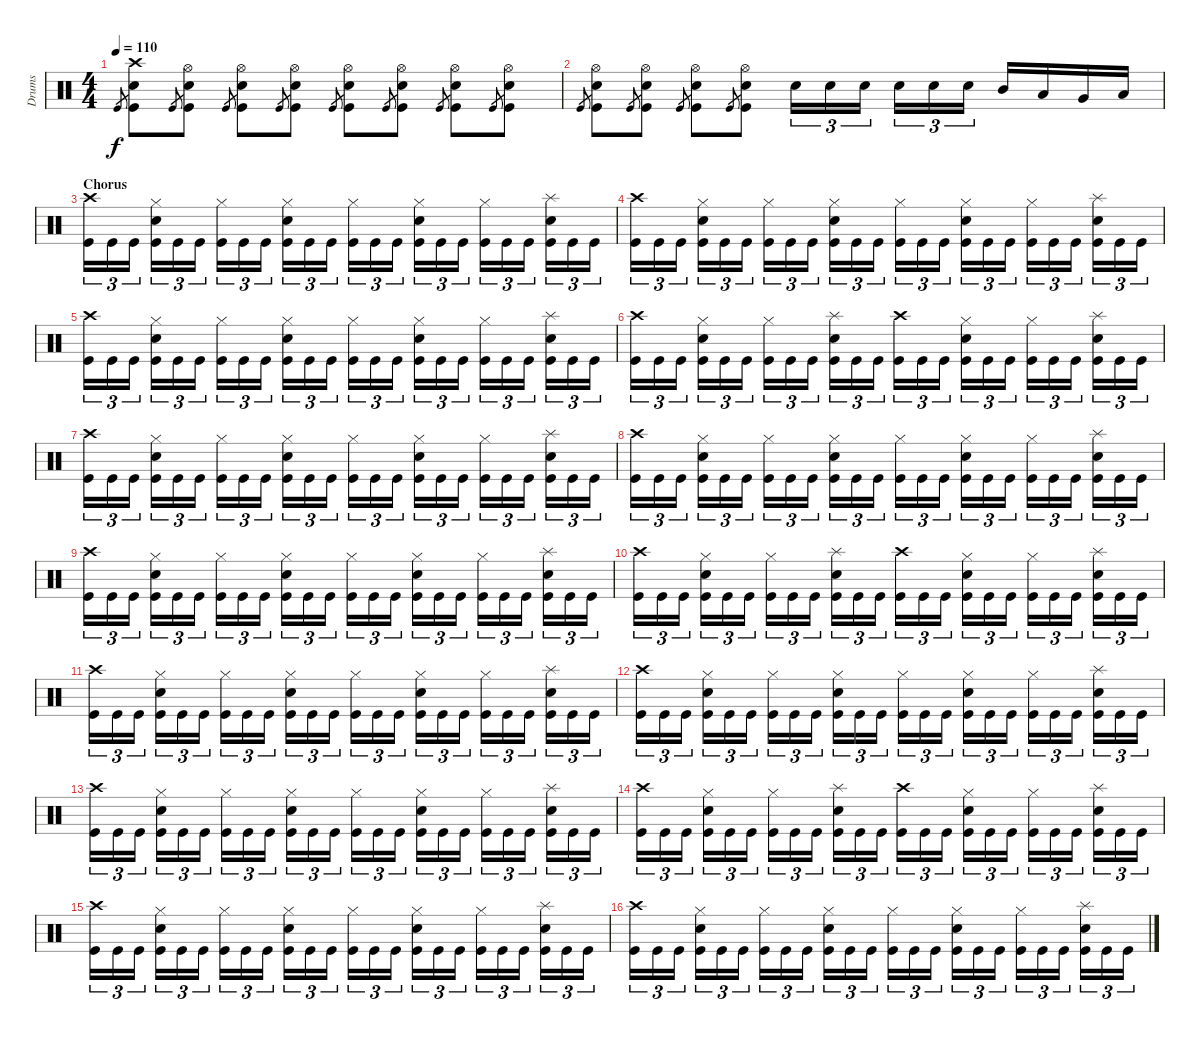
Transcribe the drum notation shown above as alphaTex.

\track ("Drums" "Drums") {instrument percussion}
\staff {score}
\articulation defaults
\ts (4 4)
\tempo 110
\clef neutral
\ks c "Kick (hit)".8{gr dy f}
("Crash high (hit)" "Snare (hit) 2" "Kick (hit)").8 "Kick (hit)".8{gr} ("Hi-Hat (open)" "Snare (hit) 2" "Kick (hit)").8 "Kick (hit)".8{gr} ("Hi-Hat (open)" "Snare (hit) 2" "Kick (hit)").8 "Kick (hit)".8{gr} ("Hi-Hat (open)" "Snare (hit) 2" "Kick (hit)").8 "Kick (hit)".8{gr} ("Hi-Hat (open)" "Snare (hit) 2" "Kick (hit)").8 "Kick (hit)".8{gr} ("Hi-Hat (open)" "Snare (hit) 2" "Kick (hit)").8 "Kick (hit)".8{gr} ("Hi-Hat (open)" "Snare (hit) 2" "Kick (hit)").8 "Kick (hit)".8{gr} ("Hi-Hat (open)" "Snare (hit) 2" "Kick (hit)").8 |
"Kick (hit)".8{gr} ("Hi-Hat (open)" "Snare (hit) 2" "Kick (hit)").8 "Kick (hit)".8{gr} ("Hi-Hat (open)" "Snare (hit) 2" "Kick (hit)").8 "Kick (hit)".8{gr} ("Hi-Hat (open)" "Snare (hit) 2" "Kick (hit)").8 "Kick (hit)".8{gr} ("Hi-Hat (open)" "Snare (hit) 2" "Kick (hit)").8 "Snare (hit) 2".16{tu (3 2)} "Snare (hit) 2".16{tu (3 2)} "Snare (hit) 2".16{tu (3 2)} "Snare (hit) 2".16{tu (3 2)} "Snare (hit) 2".16{tu (3 2)} "Snare (hit) 2".16{tu (3 2)} "Mid Tom (hit)".16 "Low Tom (hit)".16 "Very Low Tom (hit)".16 "Low Floor Tom (hit)".16 |
\section ("" "Chorus ")
("Crash high (hit)" "Kick (hit)").16{tu (3 2)} "Kick (hit)".16{tu (3 2)} "Kick (hit)".16{tu (3 2)} ("Hi-Hat (closed)" "Snare (hit) 2" "Kick (hit)").16{tu (3 2)} "Kick (hit)".16{tu (3 2)} "Kick (hit)".16{tu (3 2)} ("Hi-Hat (closed)" "Kick (hit)").16{tu (3 2)} "Kick (hit)".16{tu (3 2)} "Kick (hit)".16{tu (3 2)} ("Hi-Hat (closed)" "Snare (hit) 2" "Kick (hit)").16{tu (3 2)} "Kick (hit)".16{tu (3 2)} "Kick (hit)".16{tu (3 2)} ("Hi-Hat (closed)" "Kick (hit)").16{tu (3 2)} "Kick (hit)".16{tu (3 2)} "Kick (hit)".16{tu (3 2)} ("Hi-Hat (closed)" "Snare (hit) 2" "Kick (hit)").16{tu (3 2)} "Kick (hit)".16{tu (3 2)} "Kick (hit)".16{tu (3 2)} ("Hi-Hat (closed)" "Kick (hit)").16{tu (3 2)} "Kick (hit)".16{tu (3 2)} "Kick (hit)".16{tu (3 2)} ("Splash (hit)" "Snare (hit) 2" "Kick (hit)").16{tu (3 2)} "Kick (hit)".16{tu (3 2)} "Kick (hit)".16{tu (3 2)} |
("Crash high (hit)" "Kick (hit)").16{tu (3 2)} "Kick (hit)".16{tu (3 2)} "Kick (hit)".16{tu (3 2)} ("Hi-Hat (closed)" "Snare (hit) 2" "Kick (hit)").16{tu (3 2)} "Kick (hit)".16{tu (3 2)} "Kick (hit)".16{tu (3 2)} ("Hi-Hat (closed)" "Kick (hit)").16{tu (3 2)} "Kick (hit)".16{tu (3 2)} "Kick (hit)".16{tu (3 2)} ("Hi-Hat (closed)" "Snare (hit) 2" "Kick (hit)").16{tu (3 2)} "Kick (hit)".16{tu (3 2)} "Kick (hit)".16{tu (3 2)} ("Hi-Hat (closed)" "Kick (hit)").16{tu (3 2)} "Kick (hit)".16{tu (3 2)} "Kick (hit)".16{tu (3 2)} ("Hi-Hat (closed)" "Snare (hit) 2" "Kick (hit)").16{tu (3 2)} "Kick (hit)".16{tu (3 2)} "Kick (hit)".16{tu (3 2)} ("Hi-Hat (closed)" "Kick (hit)").16{tu (3 2)} "Kick (hit)".16{tu (3 2)} "Kick (hit)".16{tu (3 2)} ("Splash (hit)" "Snare (hit) 2" "Kick (hit)").16{tu (3 2)} "Kick (hit)".16{tu (3 2)} "Kick (hit)".16{tu (3 2)} |
("Crash high (hit)" "Kick (hit)").16{tu (3 2)} "Kick (hit)".16{tu (3 2)} "Kick (hit)".16{tu (3 2)} ("Hi-Hat (closed)" "Snare (hit) 2" "Kick (hit)").16{tu (3 2)} "Kick (hit)".16{tu (3 2)} "Kick (hit)".16{tu (3 2)} ("Hi-Hat (closed)" "Kick (hit)").16{tu (3 2)} "Kick (hit)".16{tu (3 2)} "Kick (hit)".16{tu (3 2)} ("Hi-Hat (closed)" "Snare (hit) 2" "Kick (hit)").16{tu (3 2)} "Kick (hit)".16{tu (3 2)} "Kick (hit)".16{tu (3 2)} ("Hi-Hat (closed)" "Kick (hit)").16{tu (3 2)} "Kick (hit)".16{tu (3 2)} "Kick (hit)".16{tu (3 2)} ("Hi-Hat (closed)" "Snare (hit) 2" "Kick (hit)").16{tu (3 2)} "Kick (hit)".16{tu (3 2)} "Kick (hit)".16{tu (3 2)} ("Hi-Hat (closed)" "Kick (hit)").16{tu (3 2)} "Kick (hit)".16{tu (3 2)} "Kick (hit)".16{tu (3 2)} ("Splash (hit)" "Snare (hit) 2" "Kick (hit)").16{tu (3 2)} "Kick (hit)".16{tu (3 2)} "Kick (hit)".16{tu (3 2)} |
("Crash high (hit)" "Kick (hit)").16{tu (3 2)} "Kick (hit)".16{tu (3 2)} "Kick (hit)".16{tu (3 2)} ("Hi-Hat (closed)" "Snare (hit) 2" "Kick (hit)").16{tu (3 2)} "Kick (hit)".16{tu (3 2)} "Kick (hit)".16{tu (3 2)} ("Hi-Hat (closed)" "Kick (hit)").16{tu (3 2)} "Kick (hit)".16{tu (3 2)} "Kick (hit)".16{tu (3 2)} ("Splash (hit)" "Snare (hit) 2" "Kick (hit)").16{tu (3 2)} "Kick (hit)".16{tu (3 2)} "Kick (hit)".16{tu (3 2)} ("Crash high (hit)" "Kick (hit)").16{tu (3 2)} "Kick (hit)".16{tu (3 2)} "Kick (hit)".16{tu (3 2)} ("Hi-Hat (closed)" "Snare (hit) 2" "Kick (hit)").16{tu (3 2)} "Kick (hit)".16{tu (3 2)} "Kick (hit)".16{tu (3 2)} ("Hi-Hat (closed)" "Kick (hit)").16{tu (3 2)} "Kick (hit)".16{tu (3 2)} "Kick (hit)".16{tu (3 2)} ("Splash (hit)" "Snare (hit) 2" "Kick (hit)").16{tu (3 2)} "Kick (hit)".16{tu (3 2)} "Kick (hit)".16{tu (3 2)} |
("Crash high (hit)" "Kick (hit)").16{tu (3 2)} "Kick (hit)".16{tu (3 2)} "Kick (hit)".16{tu (3 2)} ("Hi-Hat (closed)" "Snare (hit) 2" "Kick (hit)").16{tu (3 2)} "Kick (hit)".16{tu (3 2)} "Kick (hit)".16{tu (3 2)} ("Hi-Hat (closed)" "Kick (hit)").16{tu (3 2)} "Kick (hit)".16{tu (3 2)} "Kick (hit)".16{tu (3 2)} ("Hi-Hat (closed)" "Snare (hit) 2" "Kick (hit)").16{tu (3 2)} "Kick (hit)".16{tu (3 2)} "Kick (hit)".16{tu (3 2)} ("Hi-Hat (closed)" "Kick (hit)").16{tu (3 2)} "Kick (hit)".16{tu (3 2)} "Kick (hit)".16{tu (3 2)} ("Hi-Hat (closed)" "Snare (hit) 2" "Kick (hit)").16{tu (3 2)} "Kick (hit)".16{tu (3 2)} "Kick (hit)".16{tu (3 2)} ("Hi-Hat (closed)" "Kick (hit)").16{tu (3 2)} "Kick (hit)".16{tu (3 2)} "Kick (hit)".16{tu (3 2)} ("Splash (hit)" "Snare (hit) 2" "Kick (hit)").16{tu (3 2)} "Kick (hit)".16{tu (3 2)} "Kick (hit)".16{tu (3 2)} |
("Crash high (hit)" "Kick (hit)").16{tu (3 2)} "Kick (hit)".16{tu (3 2)} "Kick (hit)".16{tu (3 2)} ("Hi-Hat (closed)" "Snare (hit) 2" "Kick (hit)").16{tu (3 2)} "Kick (hit)".16{tu (3 2)} "Kick (hit)".16{tu (3 2)} ("Hi-Hat (closed)" "Kick (hit)").16{tu (3 2)} "Kick (hit)".16{tu (3 2)} "Kick (hit)".16{tu (3 2)} ("Hi-Hat (closed)" "Snare (hit) 2" "Kick (hit)").16{tu (3 2)} "Kick (hit)".16{tu (3 2)} "Kick (hit)".16{tu (3 2)} ("Hi-Hat (closed)" "Kick (hit)").16{tu (3 2)} "Kick (hit)".16{tu (3 2)} "Kick (hit)".16{tu (3 2)} ("Hi-Hat (closed)" "Snare (hit) 2" "Kick (hit)").16{tu (3 2)} "Kick (hit)".16{tu (3 2)} "Kick (hit)".16{tu (3 2)} ("Hi-Hat (closed)" "Kick (hit)").16{tu (3 2)} "Kick (hit)".16{tu (3 2)} "Kick (hit)".16{tu (3 2)} ("Splash (hit)" "Snare (hit) 2" "Kick (hit)").16{tu (3 2)} "Kick (hit)".16{tu (3 2)} "Kick (hit)".16{tu (3 2)} |
("Crash high (hit)" "Kick (hit)").16{tu (3 2)} "Kick (hit)".16{tu (3 2)} "Kick (hit)".16{tu (3 2)} ("Hi-Hat (closed)" "Snare (hit) 2" "Kick (hit)").16{tu (3 2)} "Kick (hit)".16{tu (3 2)} "Kick (hit)".16{tu (3 2)} ("Hi-Hat (closed)" "Kick (hit)").16{tu (3 2)} "Kick (hit)".16{tu (3 2)} "Kick (hit)".16{tu (3 2)} ("Hi-Hat (closed)" "Snare (hit) 2" "Kick (hit)").16{tu (3 2)} "Kick (hit)".16{tu (3 2)} "Kick (hit)".16{tu (3 2)} ("Hi-Hat (closed)" "Kick (hit)").16{tu (3 2)} "Kick (hit)".16{tu (3 2)} "Kick (hit)".16{tu (3 2)} ("Hi-Hat (closed)" "Snare (hit) 2" "Kick (hit)").16{tu (3 2)} "Kick (hit)".16{tu (3 2)} "Kick (hit)".16{tu (3 2)} ("Hi-Hat (closed)" "Kick (hit)").16{tu (3 2)} "Kick (hit)".16{tu (3 2)} "Kick (hit)".16{tu (3 2)} ("Splash (hit)" "Snare (hit) 2" "Kick (hit)").16{tu (3 2)} "Kick (hit)".16{tu (3 2)} "Kick (hit)".16{tu (3 2)} |
("Crash high (hit)" "Kick (hit)").16{tu (3 2)} "Kick (hit)".16{tu (3 2)} "Kick (hit)".16{tu (3 2)} ("Hi-Hat (closed)" "Snare (hit) 2" "Kick (hit)").16{tu (3 2)} "Kick (hit)".16{tu (3 2)} "Kick (hit)".16{tu (3 2)} ("Hi-Hat (closed)" "Kick (hit)").16{tu (3 2)} "Kick (hit)".16{tu (3 2)} "Kick (hit)".16{tu (3 2)} ("Splash (hit)" "Snare (hit) 2" "Kick (hit)").16{tu (3 2)} "Kick (hit)".16{tu (3 2)} "Kick (hit)".16{tu (3 2)} ("Crash high (hit)" "Kick (hit)").16{tu (3 2)} "Kick (hit)".16{tu (3 2)} "Kick (hit)".16{tu (3 2)} ("Hi-Hat (closed)" "Snare (hit) 2" "Kick (hit)").16{tu (3 2)} "Kick (hit)".16{tu (3 2)} "Kick (hit)".16{tu (3 2)} ("Hi-Hat (closed)" "Kick (hit)").16{tu (3 2)} "Kick (hit)".16{tu (3 2)} "Kick (hit)".16{tu (3 2)} ("Splash (hit)" "Snare (hit) 2" "Kick (hit)").16{tu (3 2)} "Kick (hit)".16{tu (3 2)} "Kick (hit)".16{tu (3 2)} |
("Crash high (hit)" "Kick (hit)").16{tu (3 2)} "Kick (hit)".16{tu (3 2)} "Kick (hit)".16{tu (3 2)} ("Hi-Hat (closed)" "Snare (hit) 2" "Kick (hit)").16{tu (3 2)} "Kick (hit)".16{tu (3 2)} "Kick (hit)".16{tu (3 2)} ("Hi-Hat (closed)" "Kick (hit)").16{tu (3 2)} "Kick (hit)".16{tu (3 2)} "Kick (hit)".16{tu (3 2)} ("Hi-Hat (closed)" "Snare (hit) 2" "Kick (hit)").16{tu (3 2)} "Kick (hit)".16{tu (3 2)} "Kick (hit)".16{tu (3 2)} ("Hi-Hat (closed)" "Kick (hit)").16{tu (3 2)} "Kick (hit)".16{tu (3 2)} "Kick (hit)".16{tu (3 2)} ("Hi-Hat (closed)" "Snare (hit) 2" "Kick (hit)").16{tu (3 2)} "Kick (hit)".16{tu (3 2)} "Kick (hit)".16{tu (3 2)} ("Hi-Hat (closed)" "Kick (hit)").16{tu (3 2)} "Kick (hit)".16{tu (3 2)} "Kick (hit)".16{tu (3 2)} ("Splash (hit)" "Snare (hit) 2" "Kick (hit)").16{tu (3 2)} "Kick (hit)".16{tu (3 2)} "Kick (hit)".16{tu (3 2)} |
("Crash high (hit)" "Kick (hit)").16{tu (3 2)} "Kick (hit)".16{tu (3 2)} "Kick (hit)".16{tu (3 2)} ("Hi-Hat (closed)" "Snare (hit) 2" "Kick (hit)").16{tu (3 2)} "Kick (hit)".16{tu (3 2)} "Kick (hit)".16{tu (3 2)} ("Hi-Hat (closed)" "Kick (hit)").16{tu (3 2)} "Kick (hit)".16{tu (3 2)} "Kick (hit)".16{tu (3 2)} ("Hi-Hat (closed)" "Snare (hit) 2" "Kick (hit)").16{tu (3 2)} "Kick (hit)".16{tu (3 2)} "Kick (hit)".16{tu (3 2)} ("Hi-Hat (closed)" "Kick (hit)").16{tu (3 2)} "Kick (hit)".16{tu (3 2)} "Kick (hit)".16{tu (3 2)} ("Hi-Hat (closed)" "Snare (hit) 2" "Kick (hit)").16{tu (3 2)} "Kick (hit)".16{tu (3 2)} "Kick (hit)".16{tu (3 2)} ("Hi-Hat (closed)" "Kick (hit)").16{tu (3 2)} "Kick (hit)".16{tu (3 2)} "Kick (hit)".16{tu (3 2)} ("Splash (hit)" "Snare (hit) 2" "Kick (hit)").16{tu (3 2)} "Kick (hit)".16{tu (3 2)} "Kick (hit)".16{tu (3 2)} |
("Crash high (hit)" "Kick (hit)").16{tu (3 2)} "Kick (hit)".16{tu (3 2)} "Kick (hit)".16{tu (3 2)} ("Hi-Hat (closed)" "Snare (hit) 2" "Kick (hit)").16{tu (3 2)} "Kick (hit)".16{tu (3 2)} "Kick (hit)".16{tu (3 2)} ("Hi-Hat (closed)" "Kick (hit)").16{tu (3 2)} "Kick (hit)".16{tu (3 2)} "Kick (hit)".16{tu (3 2)} ("Hi-Hat (closed)" "Snare (hit) 2" "Kick (hit)").16{tu (3 2)} "Kick (hit)".16{tu (3 2)} "Kick (hit)".16{tu (3 2)} ("Hi-Hat (closed)" "Kick (hit)").16{tu (3 2)} "Kick (hit)".16{tu (3 2)} "Kick (hit)".16{tu (3 2)} ("Hi-Hat (closed)" "Snare (hit) 2" "Kick (hit)").16{tu (3 2)} "Kick (hit)".16{tu (3 2)} "Kick (hit)".16{tu (3 2)} ("Hi-Hat (closed)" "Kick (hit)").16{tu (3 2)} "Kick (hit)".16{tu (3 2)} "Kick (hit)".16{tu (3 2)} ("Splash (hit)" "Snare (hit) 2" "Kick (hit)").16{tu (3 2)} "Kick (hit)".16{tu (3 2)} "Kick (hit)".16{tu (3 2)} |
("Crash high (hit)" "Kick (hit)").16{tu (3 2)} "Kick (hit)".16{tu (3 2)} "Kick (hit)".16{tu (3 2)} ("Hi-Hat (closed)" "Snare (hit) 2" "Kick (hit)").16{tu (3 2)} "Kick (hit)".16{tu (3 2)} "Kick (hit)".16{tu (3 2)} ("Hi-Hat (closed)" "Kick (hit)").16{tu (3 2)} "Kick (hit)".16{tu (3 2)} "Kick (hit)".16{tu (3 2)} ("Splash (hit)" "Snare (hit) 2" "Kick (hit)").16{tu (3 2)} "Kick (hit)".16{tu (3 2)} "Kick (hit)".16{tu (3 2)} ("Crash high (hit)" "Kick (hit)").16{tu (3 2)} "Kick (hit)".16{tu (3 2)} "Kick (hit)".16{tu (3 2)} ("Hi-Hat (closed)" "Snare (hit) 2" "Kick (hit)").16{tu (3 2)} "Kick (hit)".16{tu (3 2)} "Kick (hit)".16{tu (3 2)} ("Hi-Hat (closed)" "Kick (hit)").16{tu (3 2)} "Kick (hit)".16{tu (3 2)} "Kick (hit)".16{tu (3 2)} ("Splash (hit)" "Snare (hit) 2" "Kick (hit)").16{tu (3 2)} "Kick (hit)".16{tu (3 2)} "Kick (hit)".16{tu (3 2)} |
("Crash high (hit)" "Kick (hit)").16{tu (3 2)} "Kick (hit)".16{tu (3 2)} "Kick (hit)".16{tu (3 2)} ("Hi-Hat (closed)" "Snare (hit) 2" "Kick (hit)").16{tu (3 2)} "Kick (hit)".16{tu (3 2)} "Kick (hit)".16{tu (3 2)} ("Hi-Hat (closed)" "Kick (hit)").16{tu (3 2)} "Kick (hit)".16{tu (3 2)} "Kick (hit)".16{tu (3 2)} ("Hi-Hat (closed)" "Snare (hit) 2" "Kick (hit)").16{tu (3 2)} "Kick (hit)".16{tu (3 2)} "Kick (hit)".16{tu (3 2)} ("Hi-Hat (closed)" "Kick (hit)").16{tu (3 2)} "Kick (hit)".16{tu (3 2)} "Kick (hit)".16{tu (3 2)} ("Hi-Hat (closed)" "Snare (hit) 2" "Kick (hit)").16{tu (3 2)} "Kick (hit)".16{tu (3 2)} "Kick (hit)".16{tu (3 2)} ("Hi-Hat (closed)" "Kick (hit)").16{tu (3 2)} "Kick (hit)".16{tu (3 2)} "Kick (hit)".16{tu (3 2)} ("Splash (hit)" "Snare (hit) 2" "Kick (hit)").16{tu (3 2)} "Kick (hit)".16{tu (3 2)} "Kick (hit)".16{tu (3 2)} |
("Crash high (hit)" "Kick (hit)").16{tu (3 2)} "Kick (hit)".16{tu (3 2)} "Kick (hit)".16{tu (3 2)} ("Hi-Hat (closed)" "Snare (hit) 2" "Kick (hit)").16{tu (3 2)} "Kick (hit)".16{tu (3 2)} "Kick (hit)".16{tu (3 2)} ("Hi-Hat (closed)" "Kick (hit)").16{tu (3 2)} "Kick (hit)".16{tu (3 2)} "Kick (hit)".16{tu (3 2)} ("Hi-Hat (closed)" "Snare (hit) 2" "Kick (hit)").16{tu (3 2)} "Kick (hit)".16{tu (3 2)} "Kick (hit)".16{tu (3 2)} ("Hi-Hat (closed)" "Kick (hit)").16{tu (3 2)} "Kick (hit)".16{tu (3 2)} "Kick (hit)".16{tu (3 2)} ("Hi-Hat (closed)" "Snare (hit) 2" "Kick (hit)").16{tu (3 2)} "Kick (hit)".16{tu (3 2)} "Kick (hit)".16{tu (3 2)} ("Hi-Hat (closed)" "Kick (hit)").16{tu (3 2)} "Kick (hit)".16{tu (3 2)} "Kick (hit)".16{tu (3 2)} ("Splash (hit)" "Snare (hit) 2" "Kick (hit)").16{tu (3 2)} "Kick (hit)".16{tu (3 2)} "Kick (hit)".16{tu (3 2)}
